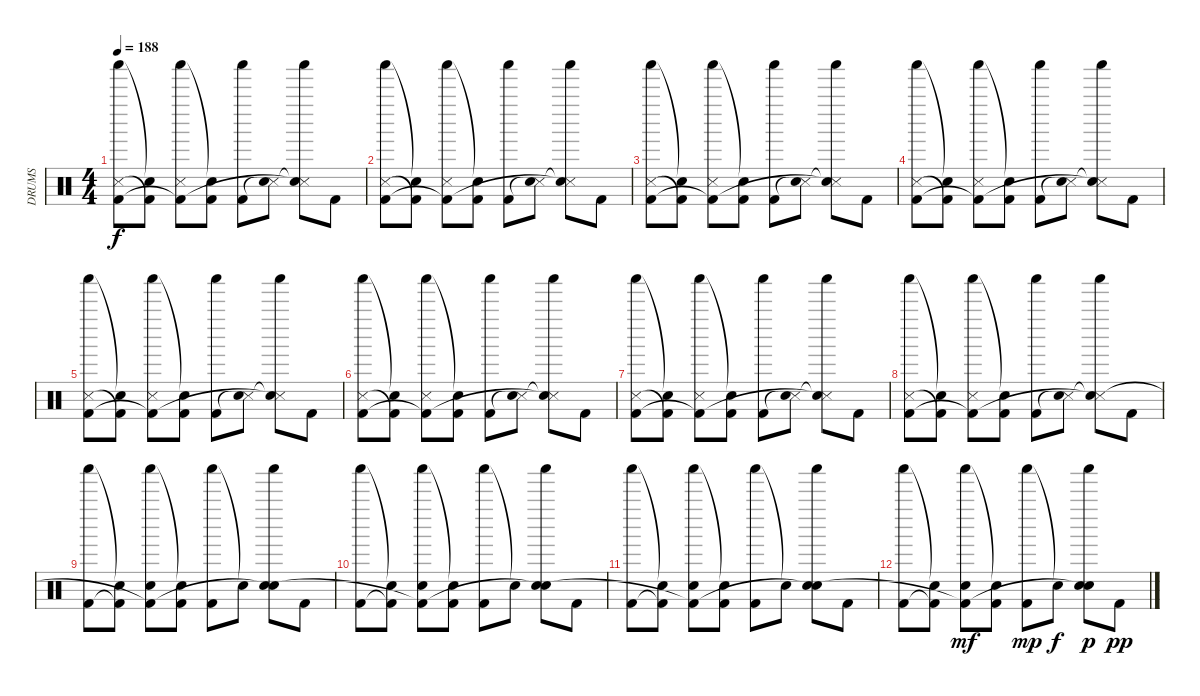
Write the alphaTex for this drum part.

\track ("DRUMS" "DRUMS") {instrument percussion}
\staff {score}
\articulation defaults
\ts (4 4)
\tempo 188
\clef neutral
\ks c
("Shaker (hit)" "Snare (side stick) 3" "Kick (hit) 2").8{dy f} ("Snare (hit)"{t} "Kick (hit) 2"{t}).8 ("Shaker (hit)" "Snare (side stick) 3" "Kick (hit) 2"{t}).8 ("Snare (hit)"{t} "Kick (hit) 2").8 ("Shaker (hit)" "Kick (hit) 2").8 ("Snare (side stick) 3" "Snare (hit)"{t}).8 ("Shaker (hit)" "Snare (side stick) 3"{t} "Snare (hit)"{t}).8 "Kick (hit) 2".8 |
("Shaker (hit)" "Snare (side stick) 3" "Kick (hit) 2").8 ("Snare (hit)"{t} "Kick (hit) 2"{t}).8 ("Shaker (hit)" "Snare (side stick) 3" "Kick (hit) 2"{t}).8 ("Snare (hit)"{t} "Kick (hit) 2").8 ("Shaker (hit)" "Kick (hit) 2").8 ("Snare (side stick) 3" "Snare (hit)"{t}).8 ("Shaker (hit)" "Snare (side stick) 3"{t} "Snare (hit)"{t}).8 "Kick (hit) 2".8 |
("Shaker (hit)" "Snare (side stick) 3" "Kick (hit) 2").8 ("Snare (hit)"{t} "Kick (hit) 2"{t}).8 ("Shaker (hit)" "Snare (side stick) 3" "Kick (hit) 2"{t}).8 ("Snare (hit)"{t} "Kick (hit) 2").8 ("Shaker (hit)" "Kick (hit) 2").8 ("Snare (side stick) 3" "Snare (hit)"{t}).8 ("Shaker (hit)" "Snare (side stick) 3"{t} "Snare (hit)"{t}).8 "Kick (hit) 2".8 |
("Shaker (hit)" "Snare (side stick) 3" "Kick (hit) 2").8 ("Snare (hit)"{t} "Kick (hit) 2"{t}).8 ("Shaker (hit)" "Snare (side stick) 3" "Kick (hit) 2"{t}).8 ("Snare (hit)"{t} "Kick (hit) 2").8 ("Shaker (hit)" "Kick (hit) 2").8 ("Snare (side stick) 3" "Snare (hit)"{t}).8 ("Shaker (hit)" "Snare (side stick) 3"{t} "Snare (hit)"{t}).8 "Kick (hit) 2".8 |
("Shaker (hit)" "Snare (side stick) 3" "Kick (hit) 2").8 ("Snare (hit)"{t} "Kick (hit) 2"{t}).8 ("Shaker (hit)" "Snare (side stick) 3" "Kick (hit) 2"{t}).8 ("Snare (hit)"{t} "Kick (hit) 2").8 ("Shaker (hit)" "Kick (hit) 2").8 ("Snare (side stick) 3" "Snare (hit)"{t}).8 ("Shaker (hit)" "Snare (side stick) 3"{t} "Snare (hit)"{t}).8 "Kick (hit) 2".8 |
("Shaker (hit)" "Snare (side stick) 3" "Kick (hit) 2").8 ("Snare (hit)"{t} "Kick (hit) 2"{t}).8 ("Shaker (hit)" "Snare (side stick) 3" "Kick (hit) 2"{t}).8 ("Snare (hit)"{t} "Kick (hit) 2").8 ("Shaker (hit)" "Kick (hit) 2").8 ("Snare (side stick) 3" "Snare (hit)"{t}).8 ("Shaker (hit)" "Snare (side stick) 3"{t} "Snare (hit)"{t}).8 "Kick (hit) 2".8 |
("Shaker (hit)" "Snare (side stick) 3" "Kick (hit) 2").8 ("Snare (hit)"{t} "Kick (hit) 2"{t}).8 ("Shaker (hit)" "Snare (side stick) 3" "Kick (hit) 2"{t}).8 ("Snare (hit)"{t} "Kick (hit) 2").8 ("Shaker (hit)" "Kick (hit) 2").8 ("Snare (side stick) 3" "Snare (hit)"{t}).8 ("Shaker (hit)" "Snare (side stick) 3"{t} "Snare (hit)"{t}).8 "Kick (hit) 2".8 |
("Shaker (hit)" "Snare (side stick) 3" "Kick (hit) 2").8 ("Snare (hit)"{t} "Kick (hit) 2"{t}).8 ("Shaker (hit)" "Snare (side stick) 3" "Kick (hit) 2"{t}).8 ("Snare (hit)"{t} "Kick (hit) 2").8 ("Shaker (hit)" "Kick (hit) 2").8 ("Snare (side stick) 3" "Snare (hit)"{t}).8 ("Shaker (hit)" "Snare (side stick) 3"{t} "Snare (hit)"{t}).8 "Kick (hit) 2".8 |
("Shaker (hit)" "Kick (hit) 2").8 ("Snare (hit)"{t} "Kick (hit) 2"{t}).8 ("Shaker (hit)" "Snare (hit) 2" "Kick (hit) 2"{t}).8 ("Snare (hit)"{t} "Kick (hit) 2").8 ("Shaker (hit)" "Kick (hit) 2").8 "Snare (hit)"{t}.8 ("Shaker (hit)" "Snare (hit) 2" "Snare (hit)"{t}).8 "Kick (hit) 2".8 |
("Shaker (hit)" "Kick (hit) 2").8 ("Snare (hit)"{t} "Kick (hit) 2"{t}).8 ("Shaker (hit)" "Snare (hit) 2" "Kick (hit) 2"{t}).8 ("Snare (hit)"{t} "Kick (hit) 2").8 ("Shaker (hit)" "Kick (hit) 2").8 "Snare (hit)"{t}.8 ("Shaker (hit)" "Snare (hit) 2" "Snare (hit)"{t}).8 "Kick (hit) 2".8 |
("Shaker (hit)" "Kick (hit) 2").8 ("Snare (hit)"{t} "Kick (hit) 2"{t}).8 ("Shaker (hit)" "Snare (hit) 2" "Kick (hit) 2"{t}).8 ("Snare (hit)"{t} "Kick (hit) 2").8 ("Shaker (hit)" "Kick (hit) 2").8 "Snare (hit)"{t}.8 ("Shaker (hit)" "Snare (hit) 2" "Snare (hit)"{t}).8 "Kick (hit) 2".8 |
("Shaker (hit)" "Kick (hit) 2").8 ("Snare (hit)"{t} "Kick (hit) 2"{t}).8 ("Shaker (hit)" "Snare (hit) 2" "Kick (hit) 2"{t}).8{dy mf} ("Snare (hit)"{t} "Kick (hit) 2").8 ("Shaker (hit)" "Kick (hit) 2").8{dy mp} "Snare (hit)"{t}.8{dy f} ("Shaker (hit)" "Snare (hit) 2" "Snare (hit)"{t}).8{dy p} "Kick (hit) 2".8{dy pp}
